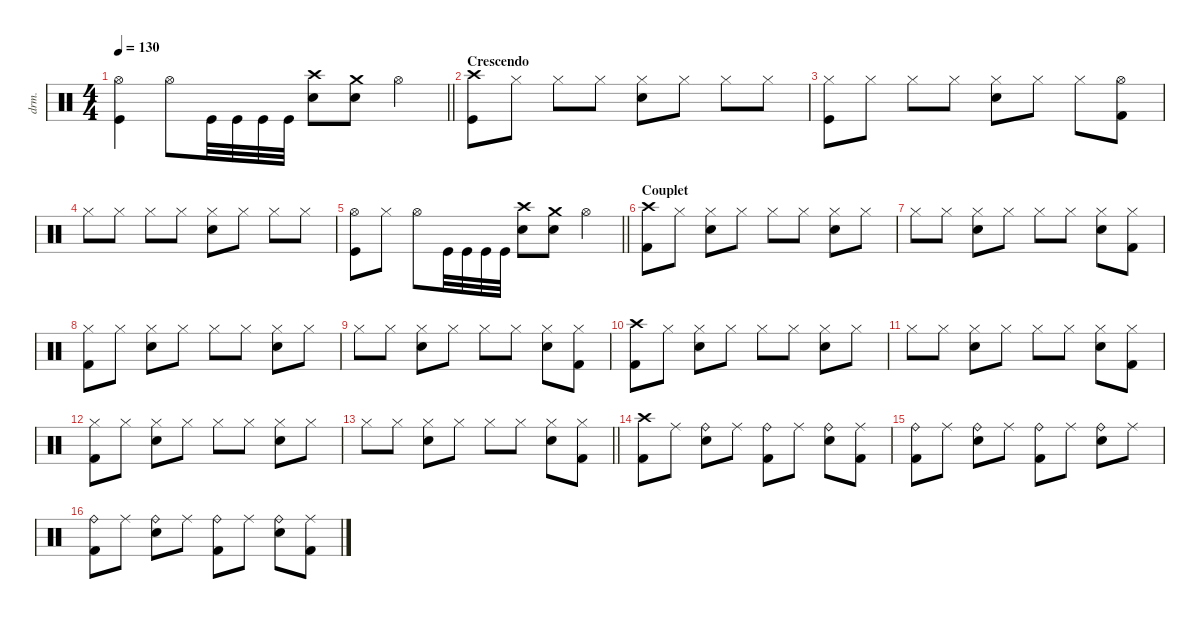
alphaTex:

\defaultSystemsLayout 4
\hideDynamics
\bracketExtendMode nobrackets
\otherSystemsTrackNameOrientation horizontal
\track ("Manouche" "drm.") {instrument percussion}
\staff {score}
\articulation defaults
\ts (4 4)
\tempo 130
\clef neutral
\barLineRight lightlight
\ks c
("Hi-Hat (open)" "Kick (hit)").4{dy f} "Hi-Hat (open)".8 "Kick (hit)".32 "Kick (hit)".32 "Kick (hit)".32 "Kick (hit)".32 ("Snare (hit) 2" "Crash high (hit)").8 ("Crash medium (hit)" "Snare (hit) 2").8 "Hi-Hat (open)".4 |
\section ("" "Crescendo")
("Crash high (hit)" "Kick (hit)").8{dy mp} "Hi-Hat (closed)".8 "Hi-Hat (closed)".8 "Hi-Hat (closed)".8 ("Hi-Hat (closed)" "Snare (hit) 2").8 "Hi-Hat (closed)".8 "Hi-Hat (closed)".8 "Hi-Hat (closed)".8 |
("Hi-Hat (closed)" "Kick (hit)").8 "Hi-Hat (closed)".8 "Hi-Hat (closed)".8 "Hi-Hat (closed)".8 ("Hi-Hat (closed)" "Snare (hit) 2").8 "Hi-Hat (closed)".8 "Hi-Hat (closed)".8 ("Hi-Hat (open)" "Kick (hit) 2").8 |
"Hi-Hat (closed)".8{dy mf} "Hi-Hat (closed)".8{dy mp} "Hi-Hat (closed)".8 "Hi-Hat (closed)".8 ("Hi-Hat (closed)" "Snare (hit) 2").8 "Hi-Hat (closed)".8 "Hi-Hat (closed)".8 "Hi-Hat (closed)".8 |
\barLineRight lightlight
("Kick (hit)" "Hi-Hat (open)").8{dy f} "Hi-Hat (closed)".8 "Hi-Hat (open)".8 "Kick (hit)".32 "Kick (hit)".32 "Kick (hit)".32 "Kick (hit)".32 ("Snare (hit) 2" "Crash high (hit)").8 ("Crash medium (hit)" "Snare (hit) 2").8 "Hi-Hat (open)".4 |
\section ("" "Couplet")
("Crash high (hit)" "Kick (hit) 2").8 "Hi-Hat (closed)".8{dy mp} ("Hi-Hat (closed)" "Snare (hit) 2").8{dy f} "Hi-Hat (closed)".8{dy mp} "Hi-Hat (closed)".8{dy f} "Hi-Hat (closed)".8{dy mp} ("Hi-Hat (closed)" "Snare (hit) 2").8{dy f} "Hi-Hat (closed)".8{dy mp} |
"Hi-Hat (closed)".8{dy f} "Hi-Hat (closed)".8{dy mp} ("Hi-Hat (closed)" "Snare (hit) 2").8{dy f} "Hi-Hat (closed)".8{dy mp} "Hi-Hat (closed)".8{dy f} "Hi-Hat (closed)".8{dy mp} ("Hi-Hat (closed)" "Snare (hit) 2").8{dy f} ("Hi-Hat (closed)" "Kick (hit) 2").8{dy mp} |
("Hi-Hat (closed)" "Kick (hit) 2").8 "Hi-Hat (closed)".8 ("Hi-Hat (closed)" "Snare (hit) 2").8{dy f} "Hi-Hat (closed)".8{dy mp} "Hi-Hat (closed)".8{dy f} "Hi-Hat (closed)".8{dy mp} ("Hi-Hat (closed)" "Snare (hit) 2").8{dy f} "Hi-Hat (closed)".8{dy mp} |
"Hi-Hat (closed)".8{dy f} "Hi-Hat (closed)".8{dy mp} ("Hi-Hat (closed)" "Snare (hit) 2").8{dy f} "Hi-Hat (closed)".8{dy mp} "Hi-Hat (closed)".8{dy f} "Hi-Hat (closed)".8{dy mp} ("Hi-Hat (closed)" "Snare (hit) 2").8{dy f} ("Hi-Hat (closed)" "Kick (hit) 2").8{dy mp} |
("Crash high (hit)" "Kick (hit) 2").8{dy f} "Hi-Hat (closed)".8{dy mp} ("Hi-Hat (closed)" "Snare (hit) 2").8{dy f} "Hi-Hat (closed)".8{dy mp} "Hi-Hat (closed)".8{dy f} "Hi-Hat (closed)".8{dy mp} ("Hi-Hat (closed)" "Snare (hit) 2").8{dy f} "Hi-Hat (closed)".8{dy mp} |
"Hi-Hat (closed)".8{dy f} "Hi-Hat (closed)".8{dy mp} ("Hi-Hat (closed)" "Snare (hit) 2").8{dy f} "Hi-Hat (closed)".8{dy mp} "Hi-Hat (closed)".8{dy f} "Hi-Hat (closed)".8{dy mp} ("Hi-Hat (closed)" "Snare (hit) 2").8{dy f} ("Hi-Hat (closed)" "Kick (hit) 2").8{dy mp} |
("Hi-Hat (closed)" "Kick (hit) 2").8 "Hi-Hat (closed)".8 ("Hi-Hat (closed)" "Snare (hit) 2").8{dy f} "Hi-Hat (closed)".8{dy mp} "Hi-Hat (closed)".8{dy f} "Hi-Hat (closed)".8{dy mp} ("Hi-Hat (closed)" "Snare (hit) 2").8{dy f} "Hi-Hat (closed)".8{dy mp} |
\barLineRight lightlight "Hi-Hat (closed)".8{dy f} "Hi-Hat (closed)".8{dy mp}
("Hi-Hat (closed)" "Snare (hit) 2").8{dy f} "Hi-Hat (closed)".8{dy mp} "Hi-Hat (closed)".8{dy f} "Hi-Hat (closed)".8{dy mp} ("Hi-Hat (closed)" "Snare (hit) 2").8{dy f} ("Hi-Hat (closed)" "Kick (hit) 2").8{dy mp} |
("Crash high (hit)" "Kick (hit) 2").8{dy f} "Ride (middle)".8{dy mf} ("Ride (bell)" "Snare (hit) 2").8{dy f} "Ride (middle)".8{dy mf} ("Ride (bell)" "Kick (hit) 2").8{dy f} "Ride (middle)".8{dy mf} ("Ride (bell)" "Snare (hit) 2").8{dy f} ("Ride (middle)" "Kick (hit) 2").8{dy mf} |
("Ride (bell)" "Kick (hit) 2").8{dy f} "Ride (middle)".8{dy mf} ("Ride (bell)" "Snare (hit) 2").8{dy f} "Ride (middle)".8{dy mf} ("Ride (bell)" "Kick (hit) 2").8{dy f} "Ride (middle)".8{dy mf} ("Ride (bell)" "Snare (hit) 2").8{dy f} "Ride (middle)".8{dy mf} |
("Ride (bell)" "Kick (hit) 2").8{dy f} "Ride (middle)".8{dy mf} ("Ride (bell)" "Snare (hit) 2").8{dy f} "Ride (middle)".8{dy mf} ("Ride (bell)" "Kick (hit) 2").8{dy f} "Ride (middle)".8{dy mf} ("Ride (bell)" "Snare (hit) 2").8{dy f} ("Ride (middle)" "Kick (hit) 2").8{dy mf}
